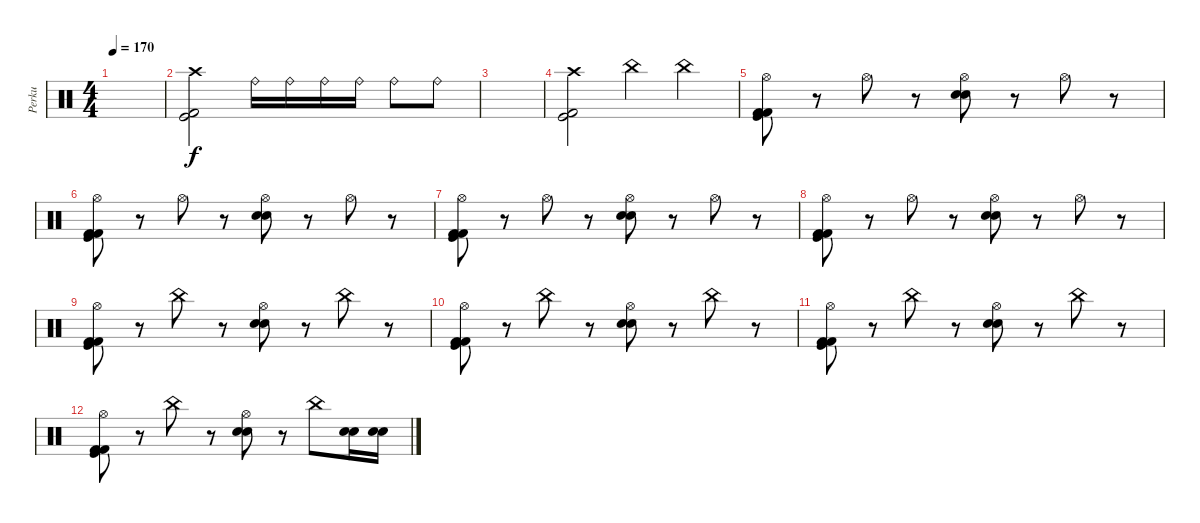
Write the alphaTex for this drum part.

\track ("Perku" "Perku") {instrument percussion}
\staff {score}
\articulation defaults
\ts (4 4)
\tempo 170
\clef neutral
\ks c
|
("Crash high (hit)" "Kick (hit) 2" "Kick (hit)").2 "Ride (bell)".16 "Ride (bell)".16 "Ride (bell)".16 "Ride (bell)".16 "Ride (bell)".8 "Ride (bell)".8 |
|
("Crash high (hit)" "Kick (hit) 2" "Kick (hit)").2 "China (hit)".4 "China (hit)".4 |
("Hi-Hat (open)" "Kick (hit) 2" "Kick (hit) 2" "Kick (hit)").8 r.8 "Hi-Hat (open)".8 r.8 ("Hi-Hat (open)" "Electric Snare (hit)" "Electric Snare (hit)").8 r.8 "Hi-Hat (open)".8 r.8 |
("Hi-Hat (open)" "Kick (hit) 2" "Kick (hit) 2" "Kick (hit)").8 r.8 "Hi-Hat (open)".8 r.8 ("Hi-Hat (open)" "Electric Snare (hit)" "Electric Snare (hit)").8 r.8 "Hi-Hat (open)".8 r.8 |
("Hi-Hat (open)" "Kick (hit) 2" "Kick (hit) 2" "Kick (hit)").8 r.8 "Hi-Hat (open)".8 r.8 ("Hi-Hat (open)" "Electric Snare (hit)" "Electric Snare (hit)").8 r.8 "Hi-Hat (open)".8 r.8 |
("Hi-Hat (open)" "Kick (hit) 2" "Kick (hit) 2" "Kick (hit)").8 r.8 "Hi-Hat (open)".8 r.8 ("Hi-Hat (open)" "Electric Snare (hit)" "Electric Snare (hit)").8 r.8 "Hi-Hat (open)".8 r.8 |
("Hi-Hat (open)" "Kick (hit) 2" "Kick (hit) 2" "Kick (hit)").8 r.8 "China (hit)".8 r.8 ("Hi-Hat (open)" "Electric Snare (hit)" "Electric Snare (hit)").8 r.8 "China (hit)".8 r.8 |
("Hi-Hat (open)" "Kick (hit) 2" "Kick (hit) 2" "Kick (hit)").8 r.8 "China (hit)".8 r.8 ("Hi-Hat (open)" "Electric Snare (hit)" "Electric Snare (hit)").8 r.8 "China (hit)".8 r.8 |
("Hi-Hat (open)" "Kick (hit) 2" "Kick (hit) 2" "Kick (hit)").8 r.8 "China (hit)".8 r.8 ("Hi-Hat (open)" "Electric Snare (hit)" "Electric Snare (hit)").8 r.8 "China (hit)".8 r.8 |
("Hi-Hat (open)" "Kick (hit) 2" "Kick (hit) 2" "Kick (hit)").8 r.8 "China (hit)".8 r.8 ("Hi-Hat (open)" "Electric Snare (hit)" "Electric Snare (hit)").8 r.8 "China (hit)".8 ("Electric Snare (hit)" "Electric Snare (hit)").16 ("Electric Snare (hit)" "Electric Snare (hit)").16
